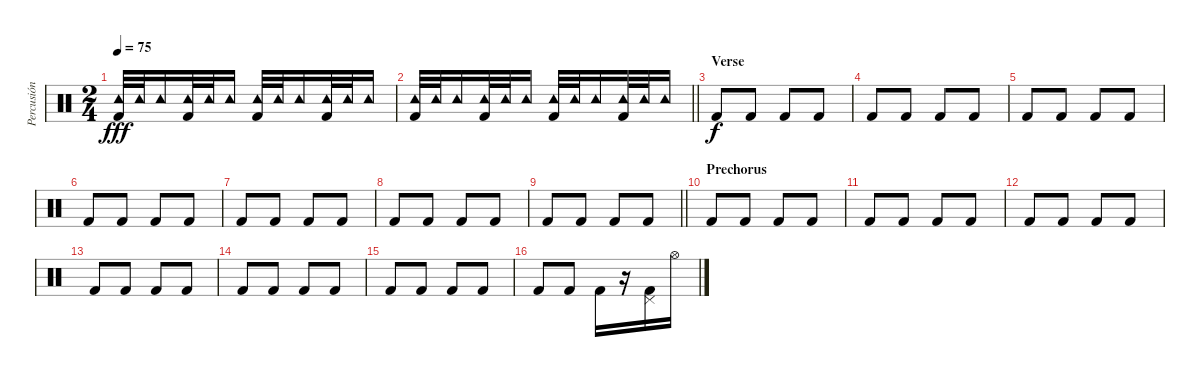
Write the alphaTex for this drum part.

\track ("Percusión" "Percusión") {instrument percussion}
\staff {score}
\articulation defaults
\ts (2 4)
\tempo 75
\clef neutral
\ks c
("Tambourine (hit)" "Kick (hit) 2").32{dy fff} "Tambourine (hit)".32 "Tambourine (hit)".16 ("Tambourine (hit)" "Kick (hit) 2").32 "Tambourine (hit)".32 "Tambourine (hit)".16 ("Tambourine (hit)" "Kick (hit) 2").32 "Tambourine (hit)".32 "Tambourine (hit)".16 ("Tambourine (hit)" "Kick (hit) 2").32 "Tambourine (hit)".32 "Tambourine (hit)".16 |
\barLineRight lightlight
("Tambourine (hit)" "Kick (hit) 2").32 "Tambourine (hit)".32 "Tambourine (hit)".16 ("Tambourine (hit)" "Kick (hit) 2").32 "Tambourine (hit)".32 "Tambourine (hit)".16 ("Tambourine (hit)" "Kick (hit) 2").32 "Tambourine (hit)".32 "Tambourine (hit)".16 ("Tambourine (hit)" "Kick (hit) 2").32 "Tambourine (hit)".32 "Tambourine (hit)".16 |
\section ("" "Verse")
"Kick (hit) 2".8{dy f} "Kick (hit) 2".8 "Kick (hit) 2".8 "Kick (hit) 2".8 |
"Kick (hit) 2".8 "Kick (hit) 2".8 "Kick (hit) 2".8 "Kick (hit) 2".8 |
"Kick (hit) 2".8 "Kick (hit) 2".8 "Kick (hit) 2".8 "Kick (hit) 2".8 |
"Kick (hit) 2".8 "Kick (hit) 2".8 "Kick (hit) 2".8 "Kick (hit) 2".8 |
"Kick (hit) 2".8 "Kick (hit) 2".8 "Kick (hit) 2".8 "Kick (hit) 2".8 |
"Kick (hit) 2".8 "Kick (hit) 2".8 "Kick (hit) 2".8 "Kick (hit) 2".8 |
\barLineRight lightlight "Kick (hit) 2".8 "Kick (hit) 2".8 "Kick (hit) 2".8 "Kick (hit) 2".8
|
\section ("" "Prechorus")
"Kick (hit) 2".8 "Kick (hit) 2".8 "Kick (hit) 2".8 "Kick (hit) 2".8 |
"Kick (hit) 2".8 "Kick (hit) 2".8 "Kick (hit) 2".8 "Kick (hit) 2".8 |
"Kick (hit) 2".8 "Kick (hit) 2".8 "Kick (hit) 2".8 "Kick (hit) 2".8 |
"Kick (hit) 2".8 "Kick (hit) 2".8 "Kick (hit) 2".8 "Kick (hit) 2".8 |
"Kick (hit) 2".8 "Kick (hit) 2".8 "Kick (hit) 2".8 "Kick (hit) 2".8 |
"Kick (hit) 2".8 "Kick (hit) 2".8 "Kick (hit) 2".8 "Kick (hit) 2".8 |
"Kick (hit) 2".8 "Kick (hit) 2".8 "Kick (hit) 2".16 r.16 ("Pedal Hi-Hat (hit)" "Kick (hit) 2").16 "Hi-Hat (open)".16
